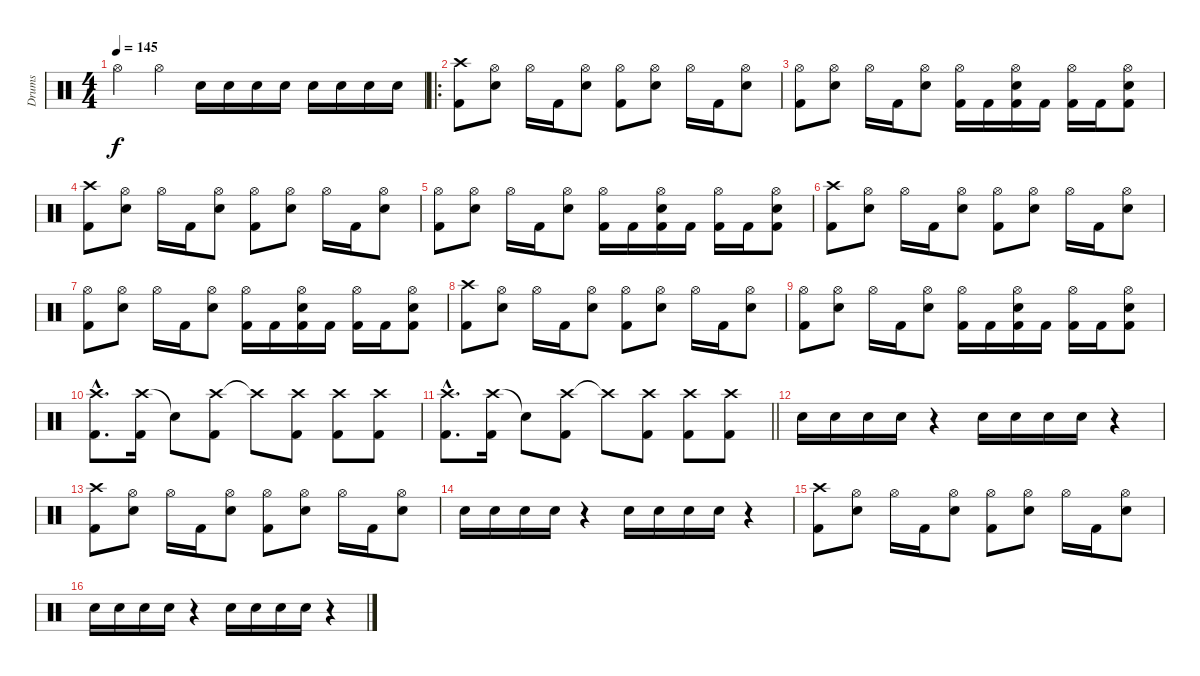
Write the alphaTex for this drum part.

\track ("Drums" "Drums") {instrument percussion}
\staff {score}
\articulation defaults
\ts (4 4)
\tempo 145
\clef neutral
\ks c "Hi-Hat (open)".4{dy f} "Hi-Hat (open)".4 "Snare (hit) 2".16 "Snare (hit) 2".16 "Snare (hit) 2".16 "Snare (hit) 2".16 "Snare (hit) 2".16 "Snare (hit) 2".16 "Snare (hit) 2".16 "Snare (hit) 2".16
|
\ro
("Crash high (hit)" "Kick (hit) 2").8 ("Hi-Hat (open)" "Snare (hit) 2").8 "Hi-Hat (open)".16 "Kick (hit) 2".16 ("Hi-Hat (open)" "Snare (hit) 2").8 ("Hi-Hat (open)" "Kick (hit) 2").8 ("Hi-Hat (open)" "Snare (hit) 2").8 "Hi-Hat (open)".16 "Kick (hit) 2".16 ("Hi-Hat (open)" "Snare (hit) 2").8 |
("Hi-Hat (open)" "Kick (hit) 2").8 ("Hi-Hat (open)" "Snare (hit) 2").8 "Hi-Hat (open)".16 "Kick (hit) 2".16 ("Hi-Hat (open)" "Snare (hit) 2").8 ("Hi-Hat (open)" "Kick (hit) 2").16 "Kick (hit) 2".16 ("Hi-Hat (open)" "Snare (hit) 2" "Kick (hit) 2").16 "Kick (hit) 2".16 ("Hi-Hat (open)" "Kick (hit) 2").16 "Kick (hit) 2".16 ("Hi-Hat (open)" "Snare (hit) 2" "Kick (hit) 2").8 |
("Crash high (hit)" "Kick (hit) 2").8 ("Hi-Hat (open)" "Snare (hit) 2").8 "Hi-Hat (open)".16 "Kick (hit) 2".16 ("Hi-Hat (open)" "Snare (hit) 2").8 ("Hi-Hat (open)" "Kick (hit) 2").8 ("Hi-Hat (open)" "Snare (hit) 2").8 "Hi-Hat (open)".16 "Kick (hit) 2".16 ("Hi-Hat (open)" "Snare (hit) 2").8 |
("Hi-Hat (open)" "Kick (hit) 2").8 ("Hi-Hat (open)" "Snare (hit) 2").8 "Hi-Hat (open)".16 "Kick (hit) 2".16 ("Hi-Hat (open)" "Snare (hit) 2").8 ("Hi-Hat (open)" "Kick (hit) 2").16 "Kick (hit) 2".16 ("Hi-Hat (open)" "Snare (hit) 2" "Kick (hit) 2").16 "Kick (hit) 2".16 ("Hi-Hat (open)" "Kick (hit) 2").16 "Kick (hit) 2".16 ("Hi-Hat (open)" "Snare (hit) 2" "Kick (hit) 2").8 |
("Crash high (hit)" "Kick (hit) 2").8 ("Hi-Hat (open)" "Snare (hit) 2").8 "Hi-Hat (open)".16 "Kick (hit) 2".16 ("Hi-Hat (open)" "Snare (hit) 2").8 ("Hi-Hat (open)" "Kick (hit) 2").8 ("Hi-Hat (open)" "Snare (hit) 2").8 "Hi-Hat (open)".16 "Kick (hit) 2".16 ("Hi-Hat (open)" "Snare (hit) 2").8 |
("Hi-Hat (open)" "Kick (hit) 2").8 ("Hi-Hat (open)" "Snare (hit) 2").8 "Hi-Hat (open)".16 "Kick (hit) 2".16 ("Hi-Hat (open)" "Snare (hit) 2").8 ("Hi-Hat (open)" "Kick (hit) 2").16 "Kick (hit) 2".16 ("Hi-Hat (open)" "Snare (hit) 2" "Kick (hit) 2").16 "Kick (hit) 2".16 ("Hi-Hat (open)" "Kick (hit) 2").16 "Kick (hit) 2".16 ("Hi-Hat (open)" "Snare (hit) 2" "Kick (hit) 2").8 |
("Crash high (hit)" "Kick (hit) 2").8 ("Hi-Hat (open)" "Snare (hit) 2").8 "Hi-Hat (open)".16 "Kick (hit) 2".16 ("Hi-Hat (open)" "Snare (hit) 2").8 ("Hi-Hat (open)" "Kick (hit) 2").8 ("Hi-Hat (open)" "Snare (hit) 2").8 "Hi-Hat (open)".16 "Kick (hit) 2".16 ("Hi-Hat (open)" "Snare (hit) 2").8 |
("Hi-Hat (open)" "Kick (hit) 2").8 ("Hi-Hat (open)" "Snare (hit) 2").8 "Hi-Hat (open)".16 "Kick (hit) 2".16 ("Hi-Hat (open)" "Snare (hit) 2").8 ("Hi-Hat (open)" "Kick (hit) 2").16 "Kick (hit) 2".16 ("Hi-Hat (open)" "Snare (hit) 2" "Kick (hit) 2").16 "Kick (hit) 2".16 ("Hi-Hat (open)" "Kick (hit) 2").16 "Kick (hit) 2".16 ("Hi-Hat (open)" "Snare (hit) 2" "Kick (hit) 2").8 |
("Crash high (hit)"{hac} "Kick (hit) 2"{hac}).8{d} ("Crash high (hit)" "Kick (hit) 2").16 "Snare (hit)"{t}.8 ("Crash high (hit)" "Kick (hit) 2").8 "Crash high (hit)"{t}.8 ("Crash high (hit)" "Kick (hit) 2").8 ("Crash high (hit)" "Kick (hit) 2").8 ("Crash high (hit)" "Kick (hit) 2").8 |
\barLineRight lightlight
("Crash high (hit)"{hac} "Kick (hit) 2"{hac}).8{d} ("Crash high (hit)" "Kick (hit) 2").16 "Snare (hit)"{t}.8 ("Crash high (hit)" "Kick (hit) 2").8 "Crash high (hit)"{t}.8 ("Crash high (hit)" "Kick (hit) 2").8 ("Crash high (hit)" "Kick (hit) 2").8 ("Crash high (hit)" "Kick (hit) 2").8 |
"Snare (hit) 2".16 "Snare (hit) 2".16 "Snare (hit) 2".16 "Snare (hit) 2".16 r.4 "Snare (hit) 2".16 "Snare (hit) 2".16 "Snare (hit) 2".16 "Snare (hit) 2".16 r.4 |
("Crash high (hit)" "Kick (hit) 2").8 ("Hi-Hat (open)" "Snare (hit) 2").8 "Hi-Hat (open)".16 "Kick (hit) 2".16 ("Hi-Hat (open)" "Snare (hit) 2").8 ("Hi-Hat (open)" "Kick (hit) 2").8 ("Hi-Hat (open)" "Snare (hit) 2").8 "Hi-Hat (open)".16 "Kick (hit) 2".16 ("Hi-Hat (open)" "Snare (hit) 2").8 |
"Snare (hit) 2".16 "Snare (hit) 2".16 "Snare (hit) 2".16 "Snare (hit) 2".16 r.4 "Snare (hit) 2".16 "Snare (hit) 2".16 "Snare (hit) 2".16 "Snare (hit) 2".16 r.4 |
("Crash high (hit)" "Kick (hit) 2").8 ("Hi-Hat (open)" "Snare (hit) 2").8 "Hi-Hat (open)".16 "Kick (hit) 2".16 ("Hi-Hat (open)" "Snare (hit) 2").8 ("Hi-Hat (open)" "Kick (hit) 2").8 ("Hi-Hat (open)" "Snare (hit) 2").8 "Hi-Hat (open)".16 "Kick (hit) 2".16 ("Hi-Hat (open)" "Snare (hit) 2").8 |
"Snare (hit) 2".16 "Snare (hit) 2".16 "Snare (hit) 2".16 "Snare (hit) 2".16 r.4 "Snare (hit) 2".16 "Snare (hit) 2".16 "Snare (hit) 2".16 "Snare (hit) 2".16 r.4
